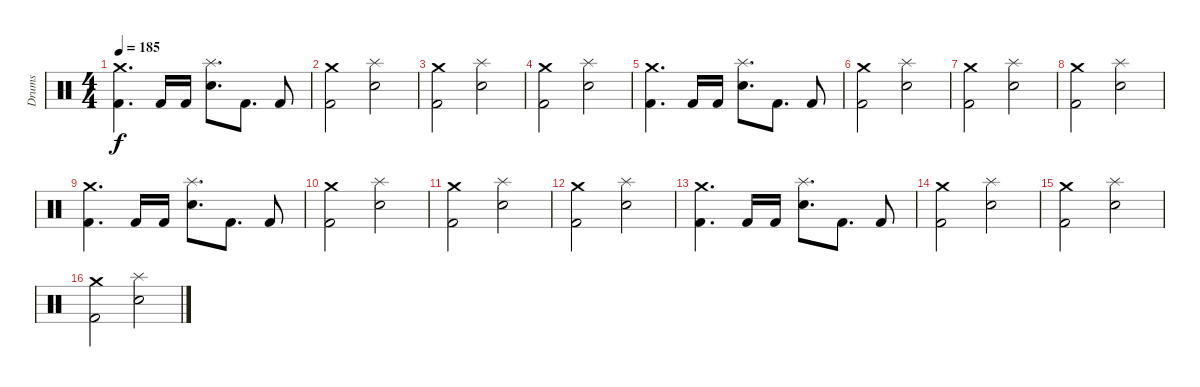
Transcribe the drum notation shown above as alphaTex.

\track ("Drums" "Drums") {instrument percussion}
\staff {score}
\articulation defaults
\ts (4 4)
\tempo 185
\clef neutral
\ks c
("Crash medium (hit)" "Kick (hit) 2").4{d dy f} "Kick (hit) 2".16 "Kick (hit) 2".16 ("Splash (hit)" "Snare (hit) 2").8{d} "Kick (hit) 2".8{d} "Kick (hit) 2".8 |
("Crash medium (hit)" "Kick (hit) 2").2{volume 6} ("Splash (hit)" "Snare (hit) 2").2 |
("Crash medium (hit)" "Kick (hit) 2").2 ("Splash (hit)" "Snare (hit) 2").2 |
("Crash medium (hit)" "Kick (hit) 2").2 ("Splash (hit)" "Snare (hit) 2").2 |
("Crash medium (hit)" "Kick (hit) 2").4{d} "Kick (hit) 2".16 "Kick (hit) 2".16 ("Splash (hit)" "Snare (hit) 2").8{d} "Kick (hit) 2".8{d} "Kick (hit) 2".8 |
("Crash medium (hit)" "Kick (hit) 2").2{volume 3} ("Splash (hit)" "Snare (hit) 2").2 |
("Crash medium (hit)" "Kick (hit) 2").2 ("Splash (hit)" "Snare (hit) 2").2 |
("Crash medium (hit)" "Kick (hit) 2").2 ("Splash (hit)" "Snare (hit) 2").2 |
("Crash medium (hit)" "Kick (hit) 2").4{d volume 5} "Kick (hit) 2".16 "Kick (hit) 2".16 ("Splash (hit)" "Snare (hit) 2").8{d} "Kick (hit) 2".8{d} "Kick (hit) 2".8 |
("Crash medium (hit)" "Kick (hit) 2").2 ("Splash (hit)" "Snare (hit) 2").2 |
("Crash medium (hit)" "Kick (hit) 2").2 ("Splash (hit)" "Snare (hit) 2").2 |
("Crash medium (hit)" "Kick (hit) 2").2 ("Splash (hit)" "Snare (hit) 2").2 |
("Crash medium (hit)" "Kick (hit) 2").4{d volume 1} "Kick (hit) 2".16 "Kick (hit) 2".16 ("Splash (hit)" "Snare (hit) 2").8{d} "Kick (hit) 2".8{d} "Kick (hit) 2".8 |
("Crash medium (hit)" "Kick (hit) 2").2 ("Splash (hit)" "Snare (hit) 2").2 |
("Crash medium (hit)" "Kick (hit) 2").2 ("Splash (hit)" "Snare (hit) 2").2 |
("Crash medium (hit)" "Kick (hit) 2").2 ("Splash (hit)" "Snare (hit) 2").2
